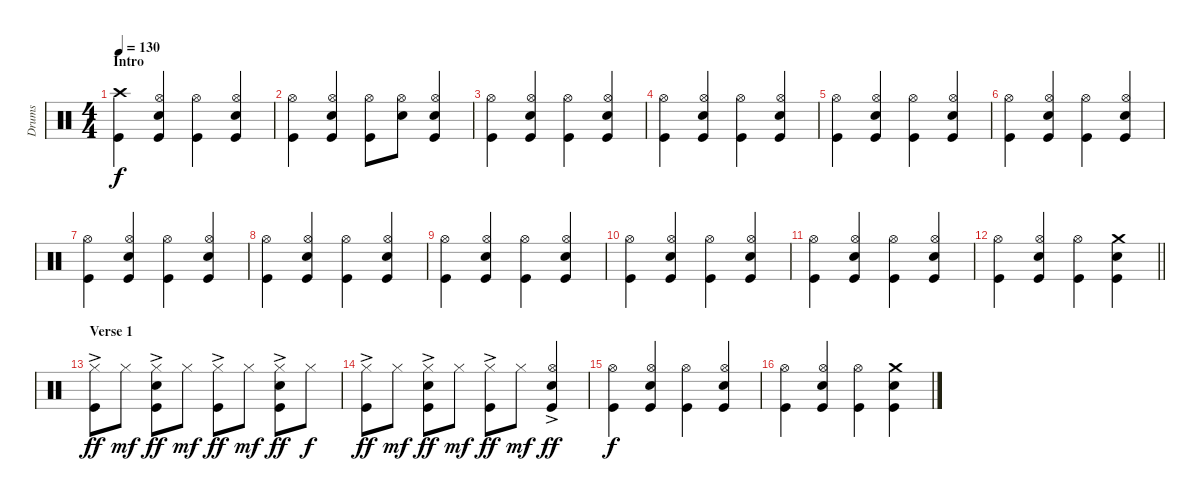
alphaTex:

\track ("Drums" "Drums") {instrument percussion}
\staff {score}
\articulation defaults
\ts (4 4)
\section ("" "Intro")
\tempo 130
\clef neutral
\ks c
("Crash high (hit)" "Kick (hit)").4{dy f} ("Hi-Hat (open)" "Snare (hit) 2" "Kick (hit)").4 ("Hi-Hat (open)" "Kick (hit)").4 ("Hi-Hat (open)" "Snare (hit) 2" "Kick (hit)").4 |
("Hi-Hat (open)" "Kick (hit)").4 ("Hi-Hat (open)" "Snare (hit) 2" "Kick (hit)").4 ("Hi-Hat (open)" "Kick (hit)").8 ("Hi-Hat (open)" "Snare (hit) 2").8 ("Hi-Hat (open)" "Snare (hit) 2" "Kick (hit)").4 |
("Hi-Hat (open)" "Kick (hit)").4 ("Hi-Hat (open)" "Snare (hit) 2" "Kick (hit)").4 ("Hi-Hat (open)" "Kick (hit)").4 ("Hi-Hat (open)" "Snare (hit) 2" "Kick (hit)").4 |
("Hi-Hat (open)" "Kick (hit)").4 ("Hi-Hat (open)" "Snare (hit) 2" "Kick (hit)").4 ("Hi-Hat (open)" "Kick (hit)").4 ("Hi-Hat (open)" "Snare (hit) 2" "Kick (hit)").4 |
("Hi-Hat (open)" "Kick (hit)").4 ("Hi-Hat (open)" "Snare (hit) 2" "Kick (hit)").4 ("Hi-Hat (open)" "Kick (hit)").4 ("Hi-Hat (open)" "Snare (hit) 2" "Kick (hit)").4 |
("Hi-Hat (open)" "Kick (hit)").4 ("Hi-Hat (open)" "Snare (hit) 2" "Kick (hit)").4 ("Hi-Hat (open)" "Kick (hit)").4 ("Hi-Hat (open)" "Snare (hit) 2" "Kick (hit)").4 |
("Hi-Hat (open)" "Kick (hit)").4 ("Hi-Hat (open)" "Snare (hit) 2" "Kick (hit)").4 ("Hi-Hat (open)" "Kick (hit)").4 ("Hi-Hat (open)" "Snare (hit) 2" "Kick (hit)").4 |
("Hi-Hat (open)" "Kick (hit)").4 ("Hi-Hat (open)" "Snare (hit) 2" "Kick (hit)").4 ("Hi-Hat (open)" "Kick (hit)").4 ("Hi-Hat (open)" "Snare (hit) 2" "Kick (hit)").4 |
("Hi-Hat (open)" "Kick (hit)").4 ("Hi-Hat (open)" "Snare (hit) 2" "Kick (hit)").4 ("Hi-Hat (open)" "Kick (hit)").4 ("Hi-Hat (open)" "Snare (hit) 2" "Kick (hit)").4 |
("Hi-Hat (open)" "Kick (hit)").4 ("Hi-Hat (open)" "Snare (hit) 2" "Kick (hit)").4 ("Hi-Hat (open)" "Kick (hit)").4 ("Hi-Hat (open)" "Snare (hit) 2" "Kick (hit)").4 |
("Hi-Hat (open)" "Kick (hit)").4 ("Hi-Hat (open)" "Snare (hit) 2" "Kick (hit)").4 ("Hi-Hat (open)" "Kick (hit)").4 ("Hi-Hat (open)" "Snare (hit) 2" "Kick (hit)").4 |
\barLineRight lightlight
("Hi-Hat (open)" "Kick (hit)").4 ("Hi-Hat (open)" "Snare (hit) 2" "Kick (hit)").4 ("Hi-Hat (open)" "Kick (hit)").4 ("Crash medium (hit)" "Snare (hit) 2" "Kick (hit)").4 |
\section ("" "Verse 1")
("Hi-Hat (closed)"{ac} "Kick (hit)").8{dy ff} "Hi-Hat (closed)".8{dy mf} ("Hi-Hat (closed)"{ac} "Snare (hit) 2" "Kick (hit)").8{dy ff} "Hi-Hat (closed)".8{dy mf} ("Hi-Hat (closed)"{ac} "Kick (hit)").8{dy ff} "Hi-Hat (closed)".8{dy mf} ("Hi-Hat (closed)"{ac} "Snare (hit) 2" "Kick (hit)").8{dy ff} "Hi-Hat (closed)".8{dy f} |
("Hi-Hat (closed)"{ac} "Kick (hit)").8{dy ff} "Hi-Hat (closed)".8{dy mf} ("Hi-Hat (closed)"{ac} "Snare (hit) 2" "Kick (hit)").8{dy ff} "Hi-Hat (closed)".8{dy mf} ("Hi-Hat (closed)"{ac} "Kick (hit)").8{dy ff} "Hi-Hat (closed)".8{dy mf} ("Hi-Hat (open)"{ac} "Snare (hit) 2" "Kick (hit)").4{dy ff} |
("Hi-Hat (open)" "Kick (hit)").4{dy f} ("Hi-Hat (open)" "Snare (hit) 2" "Kick (hit)").4 ("Hi-Hat (open)" "Kick (hit)").4 ("Hi-Hat (open)" "Snare (hit) 2" "Kick (hit)").4 |
("Hi-Hat (open)" "Kick (hit)").4 ("Hi-Hat (open)" "Snare (hit) 2" "Kick (hit)").4 ("Hi-Hat (open)" "Kick (hit)").4 ("Crash medium (hit)" "Snare (hit) 2" "Kick (hit)").4
